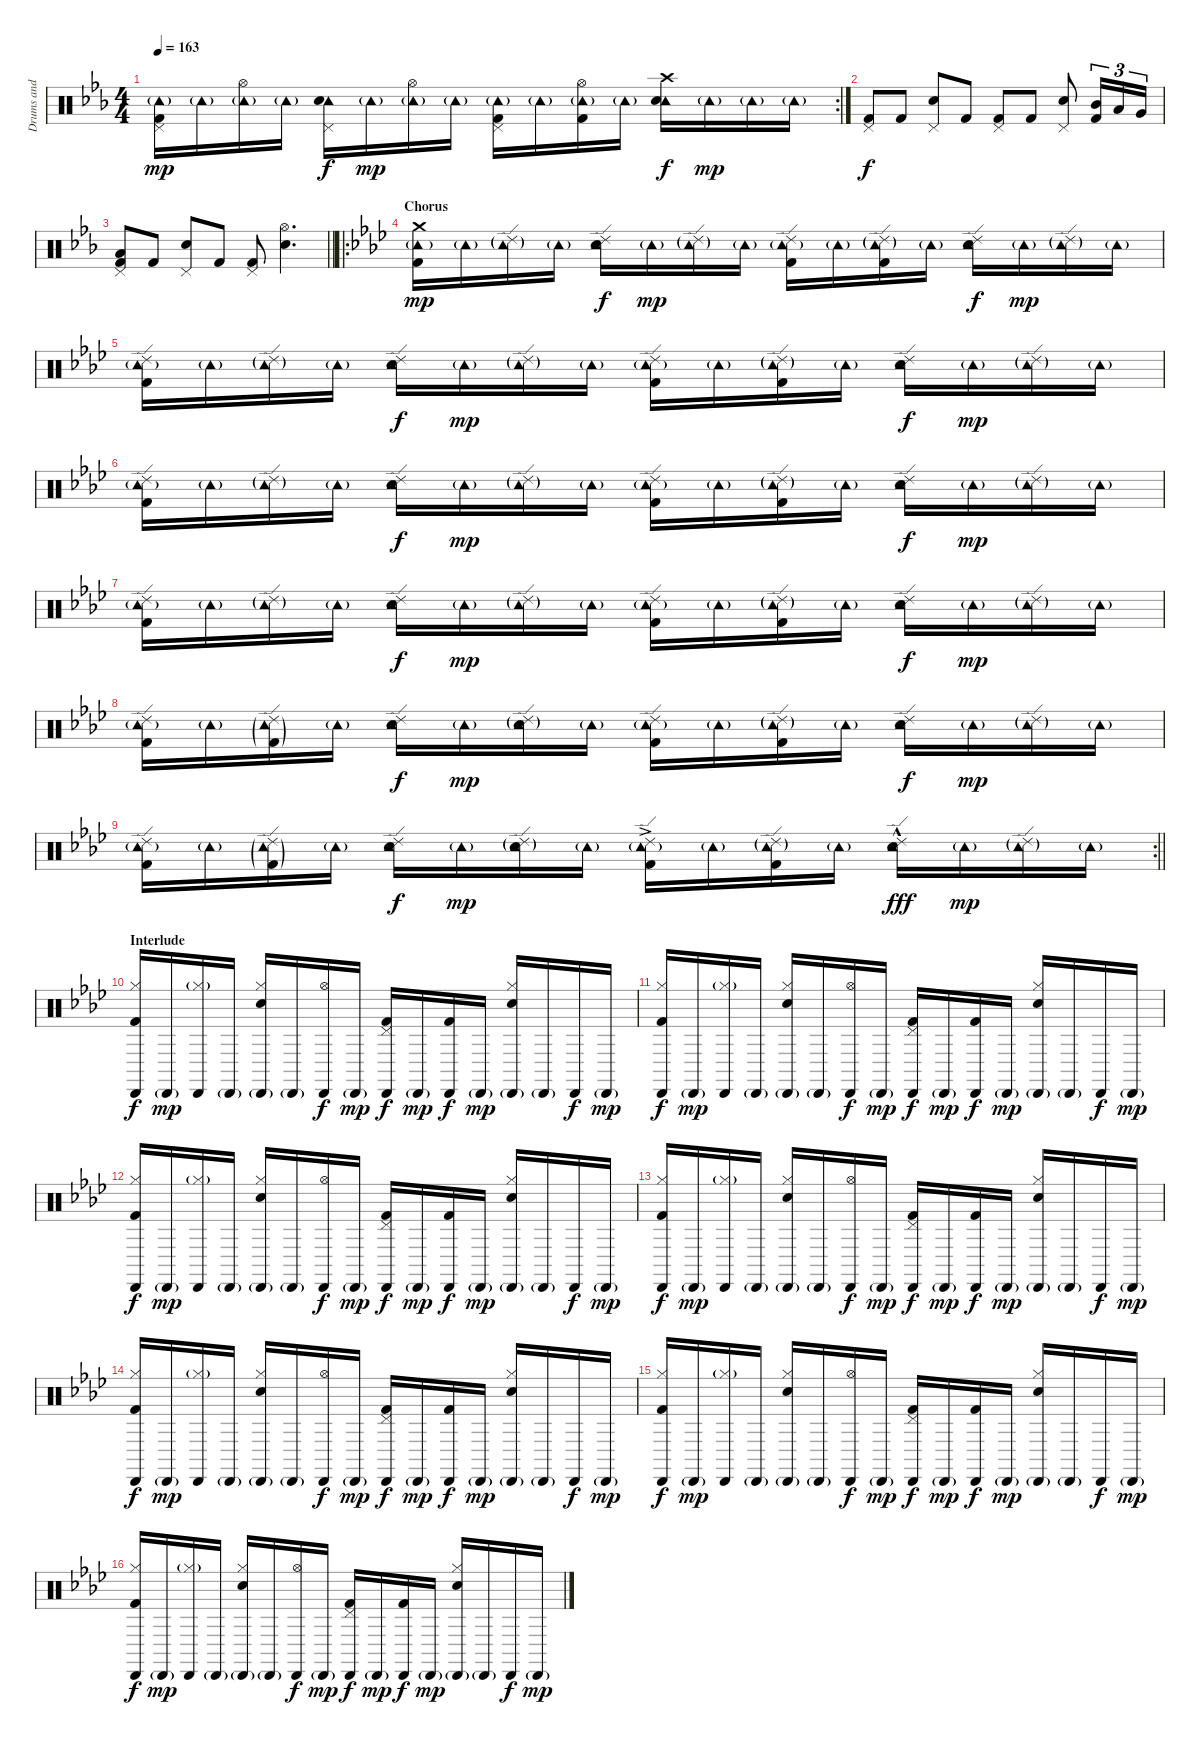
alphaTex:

\track ("Drums and Perc." "Drums and ") {instrument percussion}
\staff {score}
\articulation defaults
\rc 2
\ts (4 4)
\tempo 163
\clef neutral
\ks cminor
("Pedal Hi-Hat (hit)" "Tambourine (hit)"{g} "Kick (hit) 2").16{dy mp} "Tambourine (hit)"{g}.16 ("Hi-Hat (open)" "Tambourine (hit)"{g}).16 "Tambourine (hit)"{g}.16 ("Pedal Hi-Hat (hit)" "Tambourine (hit)" "Snare (hit) 2").16{dy f} "Tambourine (hit)"{g}.16{dy mp} ("Hi-Hat (open)" "Tambourine (hit)"{g}).16 "Tambourine (hit)"{g}.16 ("Pedal Hi-Hat (hit)" "Tambourine (hit)"{g} "Kick (hit) 2").16 "Tambourine (hit)"{g}.16 ("Hi-Hat (open)" "Tambourine (hit)"{g} "Kick (hit) 2").16 "Tambourine (hit)"{g}.16 ("Crash high (hit)" "Tambourine (hit)" "Snare (hit) 2").16{dy f} "Tambourine (hit)"{g}.16{dy mp} "Tambourine (hit)"{g}.16 "Tambourine (hit)"{g}.16 |
("Pedal Hi-Hat (hit)" "Kick (hit) 2").8{dy f} "Kick (hit) 2".8 ("Pedal Hi-Hat (hit)" "Snare (hit) 2").8 "Kick (hit) 2".8 ("Pedal Hi-Hat (hit)" "Kick (hit) 2").8 "Kick (hit) 2".8 ("Pedal Hi-Hat (hit)" "Snare (hit) 2").8 ("Mid Tom (hit)" "Kick (hit) 2").16{tu (3 2)} "Low Tom (hit)".16{tu (3 2)} "Very Low Tom (hit)".16{tu (3 2)} |
\barLineRight lightlight
("Pedal Hi-Hat (hit)" "Low Floor Tom (hit)" "Kick (hit) 2").8 "Kick (hit) 2".8 ("Pedal Hi-Hat (hit)" "Snare (hit) 2").8 "Kick (hit) 2".8 ("Pedal Hi-Hat (hit)" "Kick (hit) 2").8 ("Hi-Hat (open)" "Snare (hit) 2").4{d} |
\ro
\section ("" "Chorus")
\ks fminor
("Crash medium (hit)" "Tambourine (hit)"{g} "Kick (hit) 2").16{dy mp} "Tambourine (hit)"{g}.16 ("Ride (edge) 2"{g} "Tambourine (hit)"{g}).16 "Tambourine (hit)"{g}.16 ("Ride (edge) 2" "Tambourine (hit)" "Snare (hit) 2").16{dy f} "Tambourine (hit)"{g}.16{dy mp} ("Ride (edge) 2"{g} "Tambourine (hit)"{g}).16 "Tambourine (hit)"{g}.16 ("Ride (edge) 2" "Tambourine (hit)"{g} "Kick (hit) 2").16 "Tambourine (hit)"{g}.16 ("Ride (edge) 2"{g} "Tambourine (hit)"{g} "Kick (hit) 2").16 "Tambourine (hit)"{g}.16 ("Ride (edge) 2" "Tambourine (hit)" "Snare (hit) 2").16{dy f} "Tambourine (hit)"{g}.16{dy mp} ("Ride (edge) 2"{g} "Tambourine (hit)"{g}).16 "Tambourine (hit)"{g}.16 |
("Ride (edge) 2" "Tambourine (hit)"{g} "Kick (hit) 2").16 "Tambourine (hit)"{g}.16 ("Ride (edge) 2"{g} "Tambourine (hit)"{g}).16 "Tambourine (hit)"{g}.16 ("Ride (edge) 2" "Tambourine (hit)" "Snare (hit) 2").16{dy f} "Tambourine (hit)"{g}.16{dy mp} ("Ride (edge) 2"{g} "Tambourine (hit)"{g}).16 "Tambourine (hit)"{g}.16 ("Ride (edge) 2" "Tambourine (hit)"{g} "Kick (hit) 2").16 "Tambourine (hit)"{g}.16 ("Ride (edge) 2"{g} "Tambourine (hit)"{g} "Kick (hit) 2").16 "Tambourine (hit)"{g}.16 ("Ride (edge) 2" "Tambourine (hit)" "Snare (hit) 2").16{dy f} "Tambourine (hit)"{g}.16{dy mp} ("Ride (edge) 2"{g} "Tambourine (hit)"{g}).16 "Tambourine (hit)"{g}.16 |
("Ride (edge) 2" "Tambourine (hit)"{g} "Kick (hit) 2").16 "Tambourine (hit)"{g}.16 ("Ride (edge) 2"{g} "Tambourine (hit)"{g}).16 "Tambourine (hit)"{g}.16 ("Ride (edge) 2" "Tambourine (hit)" "Snare (hit) 2").16{dy f} "Tambourine (hit)"{g}.16{dy mp} ("Ride (edge) 2"{g} "Tambourine (hit)"{g}).16 "Tambourine (hit)"{g}.16 ("Ride (edge) 2" "Tambourine (hit)"{g} "Kick (hit) 2").16 "Tambourine (hit)"{g}.16 ("Ride (edge) 2"{g} "Tambourine (hit)"{g} "Kick (hit) 2").16 "Tambourine (hit)"{g}.16 ("Ride (edge) 2" "Tambourine (hit)" "Snare (hit) 2").16{dy f} "Tambourine (hit)"{g}.16{dy mp} ("Ride (edge) 2"{g} "Tambourine (hit)"{g}).16 "Tambourine (hit)"{g}.16 |
("Ride (edge) 2" "Tambourine (hit)"{g} "Kick (hit) 2").16 "Tambourine (hit)"{g}.16 ("Ride (edge) 2"{g} "Tambourine (hit)"{g}).16 "Tambourine (hit)"{g}.16 ("Ride (edge) 2" "Tambourine (hit)" "Snare (hit) 2").16{dy f} "Tambourine (hit)"{g}.16{dy mp} ("Ride (edge) 2"{g} "Tambourine (hit)"{g}).16 "Tambourine (hit)"{g}.16 ("Ride (edge) 2" "Tambourine (hit)"{g} "Kick (hit) 2").16 "Tambourine (hit)"{g}.16 ("Ride (edge) 2"{g} "Tambourine (hit)"{g} "Kick (hit) 2").16 "Tambourine (hit)"{g}.16 ("Ride (edge) 2" "Tambourine (hit)" "Snare (hit) 2").16{dy f} "Tambourine (hit)"{g}.16{dy mp} ("Ride (edge) 2"{g} "Tambourine (hit)"{g}).16 "Tambourine (hit)"{g}.16 |
("Ride (edge) 2" "Tambourine (hit)"{g} "Kick (hit) 2").16 "Tambourine (hit)"{g}.16 ("Ride (edge) 2"{g} "Tambourine (hit)"{g} "Kick (hit) 2"{g}).16 "Tambourine (hit)"{g}.16 ("Ride (edge) 2" "Tambourine (hit)" "Snare (hit) 2").16{dy f} "Tambourine (hit)"{g}.16{dy mp} ("Ride (edge) 2"{g} "Tambourine (hit)"{g} "Snare (hit) 2").16 "Tambourine (hit)"{g}.16 ("Ride (edge) 2" "Tambourine (hit)"{g} "Kick (hit) 2").16 "Tambourine (hit)"{g}.16 ("Ride (edge) 2"{g} "Tambourine (hit)"{g} "Kick (hit) 2").16 "Tambourine (hit)"{g}.16 ("Ride (edge) 2" "Tambourine (hit)" "Snare (hit) 2").16{dy f} "Tambourine (hit)"{g}.16{dy mp} ("Ride (edge) 2"{g} "Tambourine (hit)"{g}).16 "Tambourine (hit)"{g}.16 |
\rc 2
\barLineRight lightlight
("Ride (edge) 2" "Tambourine (hit)"{g} "Kick (hit) 2").16 "Tambourine (hit)"{g}.16 ("Ride (edge) 2"{g} "Tambourine (hit)"{g} "Kick (hit) 2"{g}).16 "Tambourine (hit)"{g}.16 ("Ride (edge) 2" "Tambourine (hit)" "Snare (hit) 2").16{dy f} "Tambourine (hit)"{g}.16{dy mp} ("Ride (edge) 2"{g} "Tambourine (hit)"{g} "Snare (hit) 2").16 "Tambourine (hit)"{g}.16 ("Ride (edge) 2"{ac} "Tambourine (hit)"{g} "Kick (hit) 2").16 "Tambourine (hit)"{g}.16 ("Ride (edge) 2"{g} "Tambourine (hit)"{g} "Kick (hit) 2").16 "Tambourine (hit)"{g}.16 ("Ride (edge) 2"{hac} "Tambourine (hit)" "Snare (hit) 2").16{dy fff} "Tambourine (hit)"{g}.16{dy mp} ("Ride (edge) 2"{g} "Tambourine (hit)"{g}).16 "Tambourine (hit)"{g}.16 |
\section ("" "Interlude")
("Hi-Hat (closed)" "Cabasa (hit)" "Kick (hit) 2").16{dy f} "Cabasa (hit)"{g}.16{dy mp} ("Hi-Hat (closed)"{g} "Cabasa (hit)").16 "Cabasa (hit)"{g}.16 ("Hi-Hat (closed)" "Cabasa (hit)"{g} "Snare (hit) 2").16 "Cabasa (hit)"{g}.16 ("Hi-Hat (open)" "Cabasa (hit)").16{dy f} "Cabasa (hit)"{g}.16{dy mp} ("Pedal Hi-Hat (hit)" "Cabasa (hit)" "Kick (hit) 2").16{dy f} "Cabasa (hit)"{g}.16{dy mp} ("Cabasa (hit)" "Kick (hit) 2").16{dy f} "Cabasa (hit)"{g}.16{dy mp} ("Hi-Hat (closed)" "Cabasa (hit)"{g} "Snare (hit) 2").16 "Cabasa (hit)"{g}.16 "Cabasa (hit)".16{dy f} "Cabasa (hit)"{g}.16{dy mp} |
("Hi-Hat (closed)" "Cabasa (hit)" "Kick (hit) 2").16{dy f} "Cabasa (hit)"{g}.16{dy mp} ("Hi-Hat (closed)"{g} "Cabasa (hit)").16 "Cabasa (hit)"{g}.16 ("Hi-Hat (closed)" "Cabasa (hit)"{g} "Snare (hit) 2").16 "Cabasa (hit)"{g}.16 ("Hi-Hat (open)" "Cabasa (hit)").16{dy f} "Cabasa (hit)"{g}.16{dy mp} ("Pedal Hi-Hat (hit)" "Cabasa (hit)" "Kick (hit) 2").16{dy f} "Cabasa (hit)"{g}.16{dy mp} ("Cabasa (hit)" "Kick (hit) 2").16{dy f} "Cabasa (hit)"{g}.16{dy mp} ("Hi-Hat (closed)" "Cabasa (hit)"{g} "Snare (hit) 2").16 "Cabasa (hit)"{g}.16 "Cabasa (hit)".16{dy f} "Cabasa (hit)"{g}.16{dy mp} |
("Hi-Hat (closed)" "Cabasa (hit)" "Kick (hit) 2").16{dy f} "Cabasa (hit)"{g}.16{dy mp} ("Hi-Hat (closed)"{g} "Cabasa (hit)").16 "Cabasa (hit)"{g}.16 ("Hi-Hat (closed)" "Cabasa (hit)"{g} "Snare (hit) 2").16 "Cabasa (hit)"{g}.16 ("Hi-Hat (open)" "Cabasa (hit)").16{dy f} "Cabasa (hit)"{g}.16{dy mp} ("Pedal Hi-Hat (hit)" "Cabasa (hit)" "Kick (hit) 2").16{dy f} "Cabasa (hit)"{g}.16{dy mp} ("Cabasa (hit)" "Kick (hit) 2").16{dy f} "Cabasa (hit)"{g}.16{dy mp} ("Hi-Hat (closed)" "Cabasa (hit)"{g} "Snare (hit) 2").16 "Cabasa (hit)"{g}.16 "Cabasa (hit)".16{dy f} "Cabasa (hit)"{g}.16{dy mp} |
("Hi-Hat (closed)" "Cabasa (hit)" "Kick (hit) 2").16{dy f} "Cabasa (hit)"{g}.16{dy mp} ("Hi-Hat (closed)"{g} "Cabasa (hit)").16 "Cabasa (hit)"{g}.16 ("Hi-Hat (closed)" "Cabasa (hit)"{g} "Snare (hit) 2").16 "Cabasa (hit)"{g}.16 ("Hi-Hat (open)" "Cabasa (hit)").16{dy f} "Cabasa (hit)"{g}.16{dy mp} ("Pedal Hi-Hat (hit)" "Cabasa (hit)" "Kick (hit) 2").16{dy f} "Cabasa (hit)"{g}.16{dy mp} ("Cabasa (hit)" "Kick (hit) 2").16{dy f} "Cabasa (hit)"{g}.16{dy mp} ("Hi-Hat (closed)" "Cabasa (hit)"{g} "Snare (hit) 2").16 "Cabasa (hit)"{g}.16 "Cabasa (hit)".16{dy f} "Cabasa (hit)"{g}.16{dy mp} |
("Hi-Hat (closed)" "Cabasa (hit)" "Kick (hit) 2").16{dy f} "Cabasa (hit)"{g}.16{dy mp} ("Hi-Hat (closed)"{g} "Cabasa (hit)").16 "Cabasa (hit)"{g}.16 ("Hi-Hat (closed)" "Cabasa (hit)"{g} "Snare (hit) 2").16 "Cabasa (hit)"{g}.16 ("Hi-Hat (open)" "Cabasa (hit)").16{dy f} "Cabasa (hit)"{g}.16{dy mp} ("Pedal Hi-Hat (hit)" "Cabasa (hit)" "Kick (hit) 2").16{dy f} "Cabasa (hit)"{g}.16{dy mp} ("Cabasa (hit)" "Kick (hit) 2").16{dy f} "Cabasa (hit)"{g}.16{dy mp} ("Hi-Hat (closed)" "Cabasa (hit)"{g} "Snare (hit) 2").16 "Cabasa (hit)"{g}.16 "Cabasa (hit)".16{dy f} "Cabasa (hit)"{g}.16{dy mp} |
("Hi-Hat (closed)" "Cabasa (hit)" "Kick (hit) 2").16{dy f} "Cabasa (hit)"{g}.16{dy mp} ("Hi-Hat (closed)"{g} "Cabasa (hit)").16 "Cabasa (hit)"{g}.16 ("Hi-Hat (closed)" "Cabasa (hit)"{g} "Snare (hit) 2").16 "Cabasa (hit)"{g}.16 ("Hi-Hat (open)" "Cabasa (hit)").16{dy f} "Cabasa (hit)"{g}.16{dy mp} ("Pedal Hi-Hat (hit)" "Cabasa (hit)" "Kick (hit) 2").16{dy f} "Cabasa (hit)"{g}.16{dy mp} ("Cabasa (hit)" "Kick (hit) 2").16{dy f} "Cabasa (hit)"{g}.16{dy mp} ("Hi-Hat (closed)" "Cabasa (hit)"{g} "Snare (hit) 2").16 "Cabasa (hit)"{g}.16 "Cabasa (hit)".16{dy f} "Cabasa (hit)"{g}.16{dy mp} |
("Hi-Hat (closed)" "Cabasa (hit)" "Kick (hit) 2").16{dy f} "Cabasa (hit)"{g}.16{dy mp} ("Hi-Hat (closed)"{g} "Cabasa (hit)").16 "Cabasa (hit)"{g}.16 ("Hi-Hat (closed)" "Cabasa (hit)"{g} "Snare (hit) 2").16 "Cabasa (hit)"{g}.16 ("Hi-Hat (open)" "Cabasa (hit)").16{dy f} "Cabasa (hit)"{g}.16{dy mp} ("Pedal Hi-Hat (hit)" "Cabasa (hit)" "Kick (hit) 2").16{dy f} "Cabasa (hit)"{g}.16{dy mp} ("Cabasa (hit)" "Kick (hit) 2").16{dy f} "Cabasa (hit)"{g}.16{dy mp} ("Hi-Hat (closed)" "Cabasa (hit)"{g} "Snare (hit) 2").16 "Cabasa (hit)"{g}.16 "Cabasa (hit)".16{dy f} "Cabasa (hit)"{g}.16{dy mp}
